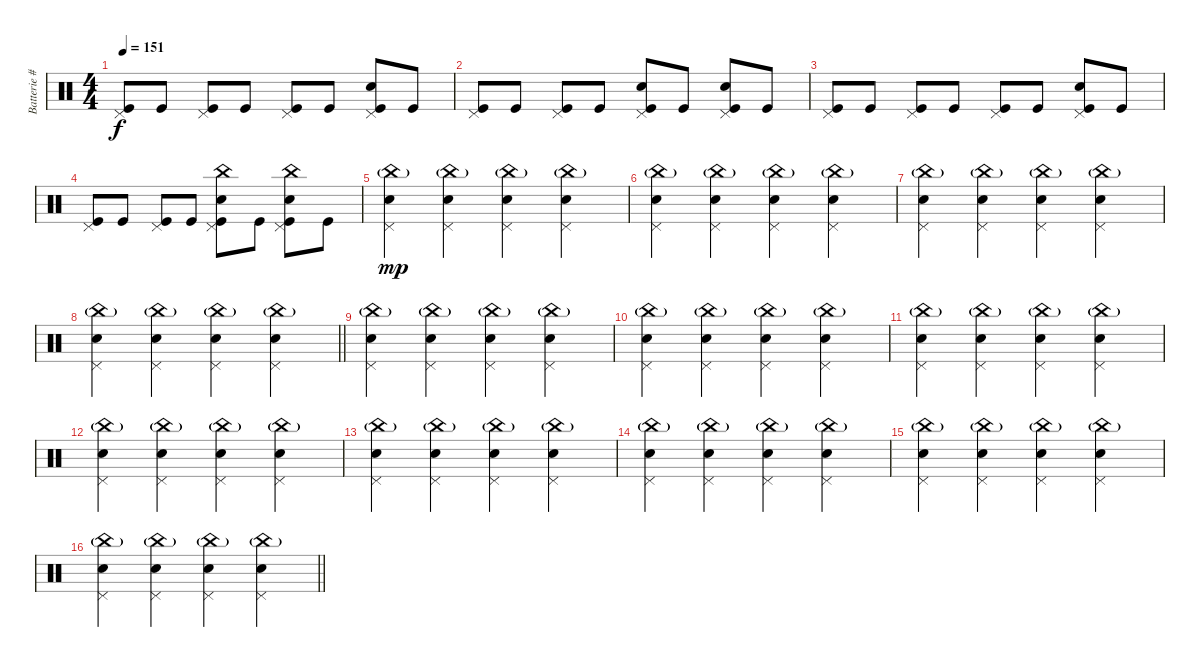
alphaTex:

\track ("Batterie # S.Hewitt" "Batterie #") {instrument percussion}
\staff {score}
\articulation defaults
\ts (4 4)
\tempo 151
\clef neutral
\ks c
("Kick (hit)" "Pedal Hi-Hat (hit)").8{dy f} "Kick (hit)".8 ("Kick (hit)" "Pedal Hi-Hat (hit)").8 "Kick (hit)".8 ("Kick (hit)" "Pedal Hi-Hat (hit)").8 "Kick (hit)".8 ("Kick (hit)" "Pedal Hi-Hat (hit)" "Electric Snare (hit)").8 "Kick (hit)".8 |
("Kick (hit)" "Pedal Hi-Hat (hit)").8 "Kick (hit)".8 ("Kick (hit)" "Pedal Hi-Hat (hit)").8 "Kick (hit)".8 ("Kick (hit)" "Pedal Hi-Hat (hit)" "Electric Snare (hit)").8 "Kick (hit)".8 ("Kick (hit)" "Pedal Hi-Hat (hit)" "Electric Snare (hit)").8 "Kick (hit)".8 |
("Kick (hit)" "Pedal Hi-Hat (hit)").8 "Kick (hit)".8 ("Kick (hit)" "Pedal Hi-Hat (hit)").8 "Kick (hit)".8 ("Kick (hit)" "Pedal Hi-Hat (hit)").8 "Kick (hit)".8 ("Kick (hit)" "Pedal Hi-Hat (hit)" "Electric Snare (hit)").8 "Kick (hit)".8 |
("Kick (hit)" "Pedal Hi-Hat (hit)").8 "Kick (hit)".8 ("Kick (hit)" "Pedal Hi-Hat (hit)").8 "Kick (hit)".8 ("Kick (hit)" "Pedal Hi-Hat (hit)" "Electric Snare (hit)" "China (hit)").8 "Kick (hit)".8 ("Kick (hit)" "Pedal Hi-Hat (hit)" "Electric Snare (hit)" "China (hit)").8 "Kick (hit)".8 |
("China (hit)"{g} "Electric Snare (hit)" "Pedal Hi-Hat (hit)").4{dy mp} ("China (hit)"{g} "Electric Snare (hit)" "Pedal Hi-Hat (hit)").4 ("China (hit)"{g} "Electric Snare (hit)" "Pedal Hi-Hat (hit)").4 ("China (hit)"{g} "Electric Snare (hit)" "Pedal Hi-Hat (hit)").4 |
("China (hit)"{g} "Electric Snare (hit)" "Pedal Hi-Hat (hit)").4 ("China (hit)"{g} "Electric Snare (hit)" "Pedal Hi-Hat (hit)").4 ("China (hit)"{g} "Electric Snare (hit)" "Pedal Hi-Hat (hit)").4 ("China (hit)"{g} "Electric Snare (hit)" "Pedal Hi-Hat (hit)").4 |
("China (hit)"{g} "Electric Snare (hit)" "Pedal Hi-Hat (hit)").4 ("China (hit)"{g} "Electric Snare (hit)" "Pedal Hi-Hat (hit)").4 ("China (hit)"{g} "Electric Snare (hit)" "Pedal Hi-Hat (hit)").4 ("China (hit)"{g} "Electric Snare (hit)" "Pedal Hi-Hat (hit)").4 |
\barLineRight lightlight
("China (hit)"{g} "Electric Snare (hit)" "Pedal Hi-Hat (hit)").4 ("China (hit)"{g} "Electric Snare (hit)" "Pedal Hi-Hat (hit)").4 ("China (hit)"{g} "Electric Snare (hit)" "Pedal Hi-Hat (hit)").4 ("China (hit)"{g} "Electric Snare (hit)" "Pedal Hi-Hat (hit)").4 |
("China (hit)"{g} "Electric Snare (hit)" "Pedal Hi-Hat (hit)").4 ("China (hit)"{g} "Electric Snare (hit)" "Pedal Hi-Hat (hit)").4 ("China (hit)"{g} "Electric Snare (hit)" "Pedal Hi-Hat (hit)").4 ("China (hit)"{g} "Electric Snare (hit)" "Pedal Hi-Hat (hit)").4 |
("China (hit)"{g} "Electric Snare (hit)" "Pedal Hi-Hat (hit)").4 ("China (hit)"{g} "Electric Snare (hit)" "Pedal Hi-Hat (hit)").4 ("China (hit)"{g} "Electric Snare (hit)" "Pedal Hi-Hat (hit)").4 ("China (hit)"{g} "Electric Snare (hit)" "Pedal Hi-Hat (hit)").4 |
("China (hit)"{g} "Electric Snare (hit)" "Pedal Hi-Hat (hit)").4 ("China (hit)"{g} "Electric Snare (hit)" "Pedal Hi-Hat (hit)").4 ("China (hit)"{g} "Electric Snare (hit)" "Pedal Hi-Hat (hit)").4 ("China (hit)"{g} "Electric Snare (hit)" "Pedal Hi-Hat (hit)").4 |
("China (hit)"{g} "Electric Snare (hit)" "Pedal Hi-Hat (hit)").4 ("China (hit)"{g} "Electric Snare (hit)" "Pedal Hi-Hat (hit)").4 ("China (hit)"{g} "Electric Snare (hit)" "Pedal Hi-Hat (hit)").4 ("China (hit)"{g} "Electric Snare (hit)" "Pedal Hi-Hat (hit)").4 |
("China (hit)"{g} "Electric Snare (hit)" "Pedal Hi-Hat (hit)").4 ("China (hit)"{g} "Electric Snare (hit)" "Pedal Hi-Hat (hit)").4 ("China (hit)"{g} "Electric Snare (hit)" "Pedal Hi-Hat (hit)").4 ("China (hit)"{g} "Electric Snare (hit)" "Pedal Hi-Hat (hit)").4 |
("China (hit)"{g} "Electric Snare (hit)" "Pedal Hi-Hat (hit)").4 ("China (hit)"{g} "Electric Snare (hit)" "Pedal Hi-Hat (hit)").4 ("China (hit)"{g} "Electric Snare (hit)" "Pedal Hi-Hat (hit)").4 ("China (hit)"{g} "Electric Snare (hit)" "Pedal Hi-Hat (hit)").4 |
("China (hit)"{g} "Electric Snare (hit)" "Pedal Hi-Hat (hit)").4 ("China (hit)"{g} "Electric Snare (hit)" "Pedal Hi-Hat (hit)").4 ("China (hit)"{g} "Electric Snare (hit)" "Pedal Hi-Hat (hit)").4 ("China (hit)"{g} "Electric Snare (hit)" "Pedal Hi-Hat (hit)").4 |
\barLineRight lightlight
("China (hit)"{g} "Electric Snare (hit)" "Pedal Hi-Hat (hit)").4 ("China (hit)"{g} "Electric Snare (hit)" "Pedal Hi-Hat (hit)").4 ("China (hit)"{g} "Electric Snare (hit)" "Pedal Hi-Hat (hit)").4 ("China (hit)"{g} "Electric Snare (hit)" "Pedal Hi-Hat (hit)").4
